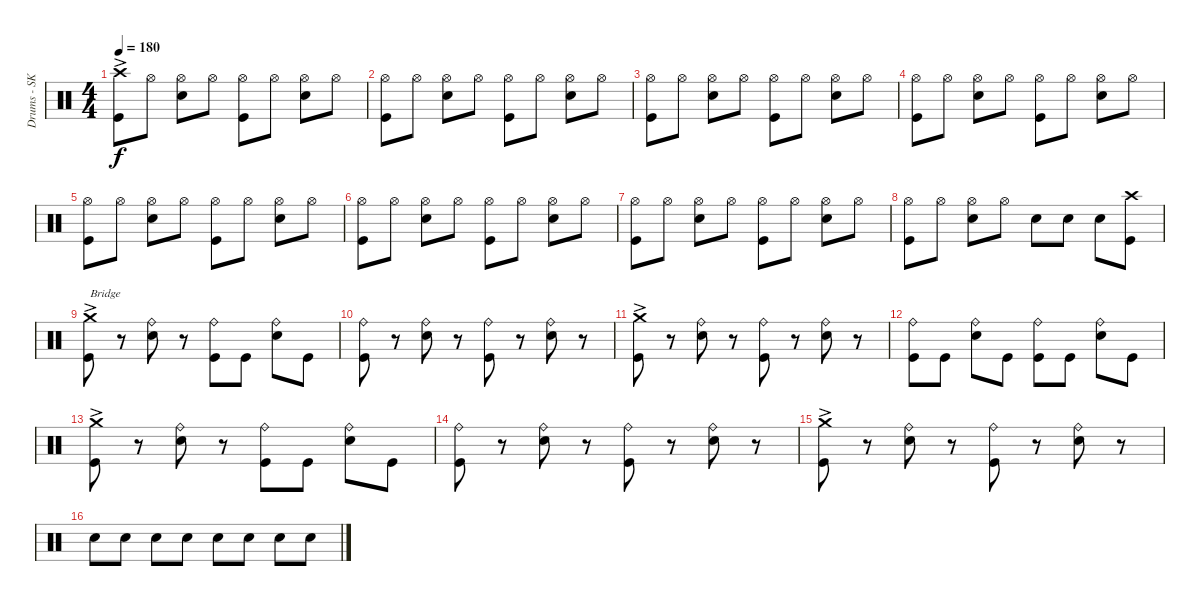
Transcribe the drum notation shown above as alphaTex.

\track ("Drums - SK" "Drums - SK") {instrument percussion}
\staff {score}
\articulation defaults
\ts (4 4)
\tempo 180
\clef neutral
\ks c
("Crash high (hit)"{ac} "Kick (hit)"{ac}).8{dy f} "Hi-Hat (open)".8 ("Hi-Hat (open)" "Snare (hit) 2").8 "Hi-Hat (open)".8 ("Hi-Hat (open)" "Kick (hit)").8 "Hi-Hat (open)".8 ("Hi-Hat (open)" "Snare (hit) 2").8 "Hi-Hat (open)".8 |
("Hi-Hat (open)" "Kick (hit)").8 "Hi-Hat (open)".8 ("Hi-Hat (open)" "Snare (hit) 2").8 "Hi-Hat (open)".8 ("Hi-Hat (open)" "Kick (hit)").8 "Hi-Hat (open)".8 ("Hi-Hat (open)" "Snare (hit) 2").8 "Hi-Hat (open)".8 |
("Hi-Hat (open)" "Kick (hit)").8 "Hi-Hat (open)".8 ("Hi-Hat (open)" "Snare (hit) 2").8 "Hi-Hat (open)".8 ("Hi-Hat (open)" "Kick (hit)").8 "Hi-Hat (open)".8 ("Hi-Hat (open)" "Snare (hit) 2").8 "Hi-Hat (open)".8 |
("Hi-Hat (open)" "Kick (hit)").8 "Hi-Hat (open)".8 ("Hi-Hat (open)" "Snare (hit) 2").8 "Hi-Hat (open)".8 ("Hi-Hat (open)" "Kick (hit)").8 "Hi-Hat (open)".8 ("Hi-Hat (open)" "Snare (hit) 2").8 "Hi-Hat (open)".8 |
("Kick (hit)" "Hi-Hat (open)").8 "Hi-Hat (open)".8 ("Hi-Hat (open)" "Snare (hit) 2").8 "Hi-Hat (open)".8 ("Hi-Hat (open)" "Kick (hit)").8 "Hi-Hat (open)".8 ("Hi-Hat (open)" "Snare (hit) 2").8 "Hi-Hat (open)".8 |
("Hi-Hat (open)" "Kick (hit)").8 "Hi-Hat (open)".8 ("Hi-Hat (open)" "Snare (hit) 2").8 "Hi-Hat (open)".8 ("Hi-Hat (open)" "Kick (hit)").8 "Hi-Hat (open)".8 ("Hi-Hat (open)" "Snare (hit) 2").8 "Hi-Hat (open)".8 |
("Hi-Hat (open)" "Kick (hit)").8 "Hi-Hat (open)".8 ("Hi-Hat (open)" "Snare (hit) 2").8 "Hi-Hat (open)".8 ("Hi-Hat (open)" "Kick (hit)").8 "Hi-Hat (open)".8 ("Hi-Hat (open)" "Snare (hit) 2").8 "Hi-Hat (open)".8 |
("Hi-Hat (open)" "Kick (hit)").8 "Hi-Hat (open)".8 ("Hi-Hat (open)" "Snare (hit) 2").8 "Hi-Hat (open)".8 "Snare (hit) 2".8 "Snare (hit) 2".8 "Snare (hit) 2".8 ("Kick (hit)" "Crash high (hit)").8 |
("Crash medium (hit)"{ac} "Kick (hit)"{ac}).8{txt "Bridge"} r.8 ("Ride (bell)" "Snare (hit) 2").8 r.8 ("Ride (bell)" "Kick (hit)").8 "Kick (hit)".8 ("Ride (bell)" "Snare (hit) 2").8 "Kick (hit)".8 |
("Ride (bell)" "Kick (hit)").8 r.8 ("Ride (bell)" "Snare (hit) 2").8 r.8 ("Ride (bell)" "Kick (hit)").8 r.8 ("Ride (bell)" "Snare (hit) 2").8 r.8 |
("Kick (hit)"{ac} "Crash medium (hit)"{ac}).8 r.8 ("Ride (bell)" "Snare (hit) 2").8 r.8 ("Ride (bell)" "Kick (hit)").8 r.8 ("Ride (bell)" "Snare (hit) 2").8 r.8 |
("Ride (bell)" "Kick (hit)").8 "Kick (hit)".8 ("Ride (bell)" "Snare (hit) 2").8 "Kick (hit)".8 ("Ride (bell)" "Kick (hit)").8 "Kick (hit)".8 ("Ride (bell)" "Snare (hit) 2").8 "Kick (hit)".8 |
("Crash medium (hit)"{ac} "Kick (hit)"{ac}).8 r.8 ("Ride (bell)" "Snare (hit) 2").8 r.8 ("Ride (bell)" "Kick (hit)").8 "Kick (hit)".8 ("Ride (bell)" "Snare (hit) 2").8 "Kick (hit)".8 |
("Ride (bell)" "Kick (hit)").8 r.8 ("Ride (bell)" "Snare (hit) 2").8 r.8 ("Ride (bell)" "Kick (hit)").8 r.8 ("Ride (bell)" "Snare (hit) 2").8 r.8 |
("Kick (hit)"{ac} "Crash medium (hit)"{ac}).8 r.8 ("Ride (bell)" "Snare (hit) 2").8 r.8 ("Ride (bell)" "Kick (hit)").8 r.8 ("Ride (bell)" "Snare (hit) 2").8 r.8 |
"Snare (hit) 2".8 "Snare (hit) 2".8 "Snare (hit) 2".8 "Snare (hit) 2".8 "Snare (hit) 2".8 "Snare (hit) 2".8 "Snare (hit) 2".8 "Snare (hit) 2".8
